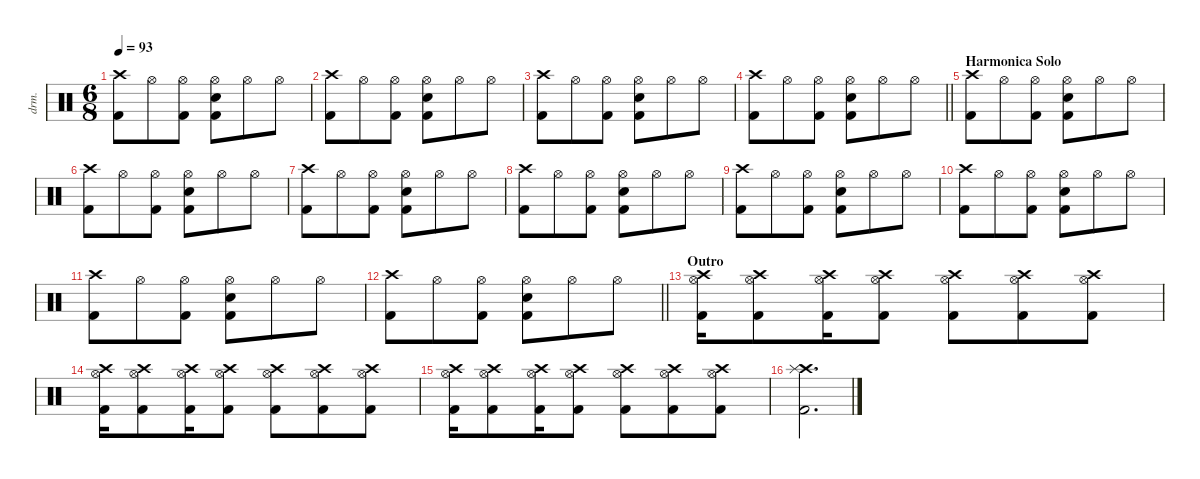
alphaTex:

\defaultSystemsLayout 4
\hideDynamics
\bracketExtendMode nobrackets
\otherSystemsTrackNameOrientation horizontal
\track ("Drums" "drm.") {instrument percussion}
\staff {score}
\articulation defaults
\ts (6 8)
\tempo 93
\clef neutral
\ks c
("Crash high (hit)" "Kick (hit) 2").8{dy f beam Down} "Hi-Hat (open)".8{beam Down} ("Hi-Hat (open)" "Kick (hit) 2").8{beam Down} ("Hi-Hat (open)" "Snare (hit) 2" "Kick (hit) 2").8{beam Down} "Hi-Hat (open)".8{beam Down} "Hi-Hat (open)".8{beam Down} |
("Crash high (hit)" "Kick (hit) 2").8{beam Down} "Hi-Hat (open)".8{beam Down} ("Hi-Hat (open)" "Kick (hit) 2").8{beam Down} ("Hi-Hat (open)" "Snare (hit) 2" "Kick (hit) 2").8{beam Down} "Hi-Hat (open)".8{beam Down} "Hi-Hat (open)".8{beam Down} |
("Crash high (hit)" "Kick (hit) 2").8{beam Down} "Hi-Hat (open)".8{beam Down} ("Hi-Hat (open)" "Kick (hit) 2").8{beam Down} ("Hi-Hat (open)" "Snare (hit) 2" "Kick (hit) 2").8{beam Down} "Hi-Hat (open)".8{beam Down} "Hi-Hat (open)".8{beam Down} |
\barLineRight lightlight
("Crash high (hit)" "Kick (hit) 2").8{beam Down} "Hi-Hat (open)".8{beam Down} ("Hi-Hat (open)" "Kick (hit) 2").8{beam Down} ("Hi-Hat (open)" "Snare (hit) 2" "Kick (hit) 2").8{beam Down} "Hi-Hat (open)".8{beam Down} "Hi-Hat (open)".8{beam Down} |
\section ("" "Harmonica Solo")
("Crash high (hit)" "Kick (hit) 2").8{beam Down} "Hi-Hat (open)".8{beam Down} ("Hi-Hat (open)" "Kick (hit) 2").8{beam Down} ("Hi-Hat (open)" "Snare (hit) 2" "Kick (hit) 2").8{beam Down} "Hi-Hat (open)".8{beam Down} "Hi-Hat (open)".8{beam Down} |
("Crash high (hit)" "Kick (hit) 2").8{beam Down} "Hi-Hat (open)".8{beam Down} ("Hi-Hat (open)" "Kick (hit) 2").8{beam Down} ("Hi-Hat (open)" "Snare (hit) 2" "Kick (hit) 2").8{beam Down} "Hi-Hat (open)".8{beam Down} "Hi-Hat (open)".8{beam Down} |
("Crash high (hit)" "Kick (hit) 2").8{beam Down} "Hi-Hat (open)".8{beam Down} ("Hi-Hat (open)" "Kick (hit) 2").8{beam Down} ("Hi-Hat (open)" "Snare (hit) 2" "Kick (hit) 2").8{beam Down} "Hi-Hat (open)".8{beam Down} "Hi-Hat (open)".8{beam Down} |
("Crash high (hit)" "Kick (hit) 2").8{beam Down} "Hi-Hat (open)".8{beam Down} ("Hi-Hat (open)" "Kick (hit) 2").8{beam Down} ("Hi-Hat (open)" "Snare (hit) 2" "Kick (hit) 2").8{beam Down} "Hi-Hat (open)".8{beam Down} "Hi-Hat (open)".8{beam Down} |
("Crash high (hit)" "Kick (hit) 2").8{beam Down} "Hi-Hat (open)".8{beam Down} ("Hi-Hat (open)" "Kick (hit) 2").8{beam Down} ("Hi-Hat (open)" "Snare (hit) 2" "Kick (hit) 2").8{beam Down} "Hi-Hat (open)".8{beam Down} "Hi-Hat (open)".8{beam Down} |
("Crash high (hit)" "Kick (hit) 2").8{beam Down} "Hi-Hat (open)".8{beam Down} ("Hi-Hat (open)" "Kick (hit) 2").8{beam Down} ("Hi-Hat (open)" "Snare (hit) 2" "Kick (hit) 2").8{beam Down} "Hi-Hat (open)".8{beam Down} "Hi-Hat (open)".8{beam Down} |
("Crash high (hit)" "Kick (hit) 2").8{beam Down} "Hi-Hat (open)".8{beam Down} ("Hi-Hat (open)" "Kick (hit) 2").8{beam Down} ("Hi-Hat (open)" "Snare (hit) 2" "Kick (hit) 2").8{beam Down} "Hi-Hat (open)".8{beam Down} "Hi-Hat (open)".8{beam Down} |
\barLineRight lightlight
("Crash high (hit)" "Kick (hit) 2").8{beam Down} "Hi-Hat (open)".8{beam Down} ("Hi-Hat (open)" "Kick (hit) 2").8{beam Down} ("Hi-Hat (open)" "Snare (hit) 2" "Kick (hit) 2").8{beam Down} "Hi-Hat (open)".8{beam Down} "Hi-Hat (open)".8{beam Down} |
\section ("" "Outro")
("Crash high (hit)" "Hi-Hat (open)" "Kick (hit) 2").16{beam Down} ("Crash high (hit)" "Hi-Hat (open)" "Kick (hit) 2").8{beam Down} ("Crash high (hit)" "Hi-Hat (open)" "Kick (hit) 2").16{beam Down} ("Crash high (hit)" "Hi-Hat (open)" "Kick (hit) 2").8{beam Down} ("Crash high (hit)" "Hi-Hat (open)" "Kick (hit) 2").8{beam Down} ("Crash high (hit)" "Hi-Hat (open)" "Kick (hit) 2").8{beam Down} ("Crash high (hit)" "Hi-Hat (open)" "Kick (hit) 2").8{beam Down} |
("Crash high (hit)" "Hi-Hat (open)" "Kick (hit) 2").16{beam Down} ("Crash high (hit)" "Hi-Hat (open)" "Kick (hit) 2").8{beam Down} ("Crash high (hit)" "Hi-Hat (open)" "Kick (hit) 2").16{beam Down} ("Crash high (hit)" "Hi-Hat (open)" "Kick (hit) 2").8{beam Down} ("Crash high (hit)" "Hi-Hat (open)" "Kick (hit) 2").8{beam Down} ("Crash high (hit)" "Hi-Hat (open)" "Kick (hit) 2").8{beam Down} ("Crash high (hit)" "Hi-Hat (open)" "Kick (hit) 2").8{beam Down} |
("Crash high (hit)" "Hi-Hat (open)" "Kick (hit) 2").16{beam Down} ("Crash high (hit)" "Hi-Hat (open)" "Kick (hit) 2").8{beam Down} ("Crash high (hit)" "Hi-Hat (open)" "Kick (hit) 2").16{beam Down} ("Crash high (hit)" "Hi-Hat (open)" "Kick (hit) 2").8{beam Down} ("Crash high (hit)" "Hi-Hat (open)" "Kick (hit) 2").8{beam Down} ("Crash high (hit)" "Hi-Hat (open)" "Kick (hit) 2").8{beam Down} ("Crash high (hit)" "Hi-Hat (open)" "Kick (hit) 2").8{beam Down} |
("Crash high (hit)" "Splash (hit)" "Kick (hit) 2").2{d beam Down}
